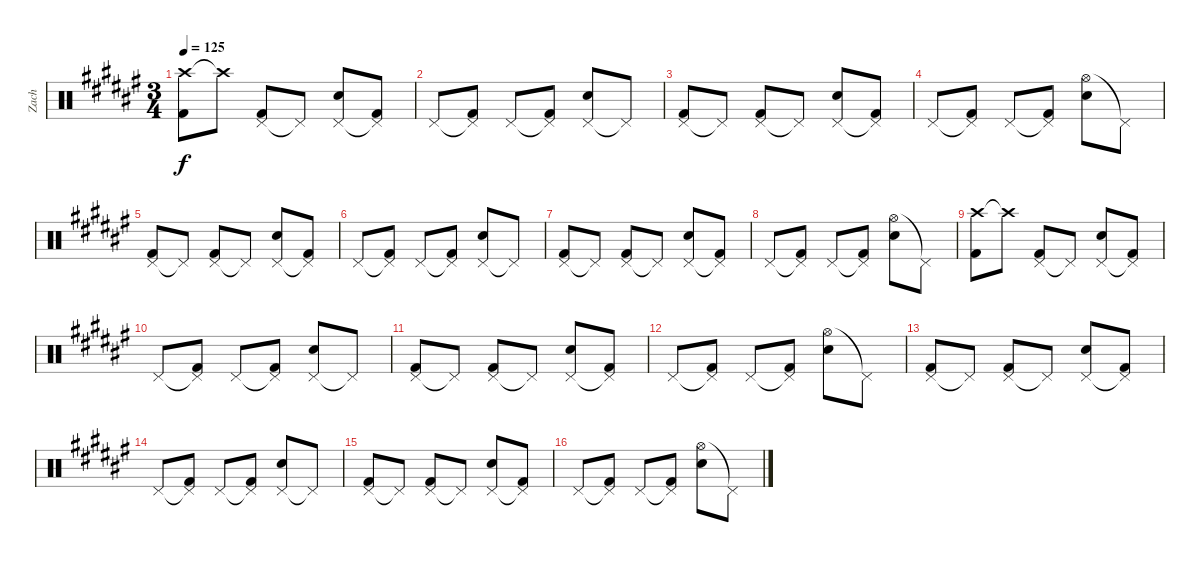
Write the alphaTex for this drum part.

\track ("Zach" "Zach") {instrument percussion}
\staff {score}
\articulation defaults
\ts (3 4)
\tempo 125
\clef neutral
\ks f#
("Crash high (hit)" "Kick (hit) 2").8{dy f} "Crash high (hit)"{t}.8 ("Pedal Hi-Hat (hit)" "Kick (hit) 2").8 "Pedal Hi-Hat (hit)"{t}.8 ("Pedal Hi-Hat (hit)" "Snare (hit) 2").8 ("Pedal Hi-Hat (hit)"{t} "Kick (hit) 2").8 |
"Pedal Hi-Hat (hit)".8 ("Pedal Hi-Hat (hit)"{t} "Kick (hit) 2").8 "Pedal Hi-Hat (hit)".8 ("Pedal Hi-Hat (hit)"{t} "Kick (hit) 2").8 ("Pedal Hi-Hat (hit)" "Snare (hit) 2").8 "Pedal Hi-Hat (hit)"{t}.8 |
("Pedal Hi-Hat (hit)" "Kick (hit) 2").8 "Pedal Hi-Hat (hit)"{t}.8 ("Pedal Hi-Hat (hit)" "Kick (hit) 2").8 "Pedal Hi-Hat (hit)"{t}.8 ("Pedal Hi-Hat (hit)" "Snare (hit) 2").8 ("Pedal Hi-Hat (hit)"{t} "Kick (hit) 2").8 |
"Pedal Hi-Hat (hit)".8 ("Pedal Hi-Hat (hit)"{t} "Kick (hit) 2").8 "Pedal Hi-Hat (hit)".8 ("Pedal Hi-Hat (hit)"{t} "Kick (hit) 2").8 ("Hi-Hat (open)" "Snare (hit) 2").8 "Pedal Hi-Hat (hit)"{t}.8 |
("Pedal Hi-Hat (hit)" "Kick (hit) 2").8 "Pedal Hi-Hat (hit)"{t}.8 ("Pedal Hi-Hat (hit)" "Kick (hit) 2").8 "Pedal Hi-Hat (hit)"{t}.8 ("Pedal Hi-Hat (hit)" "Snare (hit) 2").8 ("Pedal Hi-Hat (hit)"{t} "Kick (hit) 2").8 |
"Pedal Hi-Hat (hit)".8 ("Pedal Hi-Hat (hit)"{t} "Kick (hit) 2").8 "Pedal Hi-Hat (hit)".8 ("Pedal Hi-Hat (hit)"{t} "Kick (hit) 2").8 ("Pedal Hi-Hat (hit)" "Snare (hit) 2").8 "Pedal Hi-Hat (hit)"{t}.8 |
("Pedal Hi-Hat (hit)" "Kick (hit) 2").8 "Pedal Hi-Hat (hit)"{t}.8 ("Pedal Hi-Hat (hit)" "Kick (hit) 2").8 "Pedal Hi-Hat (hit)"{t}.8 ("Pedal Hi-Hat (hit)" "Snare (hit) 2").8 ("Pedal Hi-Hat (hit)"{t} "Kick (hit) 2").8 |
"Pedal Hi-Hat (hit)".8 ("Pedal Hi-Hat (hit)"{t} "Kick (hit) 2").8 "Pedal Hi-Hat (hit)".8 ("Pedal Hi-Hat (hit)"{t} "Kick (hit) 2").8 ("Hi-Hat (open)" "Snare (hit) 2").8 "Pedal Hi-Hat (hit)"{t}.8 |
("Crash high (hit)" "Kick (hit) 2").8 "Crash high (hit)"{t}.8 ("Pedal Hi-Hat (hit)" "Kick (hit) 2").8 "Pedal Hi-Hat (hit)"{t}.8 ("Pedal Hi-Hat (hit)" "Snare (hit) 2").8 ("Pedal Hi-Hat (hit)"{t} "Kick (hit) 2").8 |
"Pedal Hi-Hat (hit)".8 ("Pedal Hi-Hat (hit)"{t} "Kick (hit) 2").8 "Pedal Hi-Hat (hit)".8 ("Pedal Hi-Hat (hit)"{t} "Kick (hit) 2").8 ("Pedal Hi-Hat (hit)" "Snare (hit) 2").8 "Pedal Hi-Hat (hit)"{t}.8 |
("Pedal Hi-Hat (hit)" "Kick (hit) 2").8 "Pedal Hi-Hat (hit)"{t}.8 ("Pedal Hi-Hat (hit)" "Kick (hit) 2").8 "Pedal Hi-Hat (hit)"{t}.8 ("Pedal Hi-Hat (hit)" "Snare (hit) 2").8 ("Pedal Hi-Hat (hit)"{t} "Kick (hit) 2").8 |
"Pedal Hi-Hat (hit)".8 ("Pedal Hi-Hat (hit)"{t} "Kick (hit) 2").8 "Pedal Hi-Hat (hit)".8 ("Pedal Hi-Hat (hit)"{t} "Kick (hit) 2").8 ("Hi-Hat (open)" "Snare (hit) 2").8 "Pedal Hi-Hat (hit)"{t}.8 |
("Pedal Hi-Hat (hit)" "Kick (hit) 2").8 "Pedal Hi-Hat (hit)"{t}.8 ("Pedal Hi-Hat (hit)" "Kick (hit) 2").8 "Pedal Hi-Hat (hit)"{t}.8 ("Pedal Hi-Hat (hit)" "Snare (hit) 2").8 ("Pedal Hi-Hat (hit)"{t} "Kick (hit) 2").8 |
"Pedal Hi-Hat (hit)".8 ("Pedal Hi-Hat (hit)"{t} "Kick (hit) 2").8 "Pedal Hi-Hat (hit)".8 ("Pedal Hi-Hat (hit)"{t} "Kick (hit) 2").8 ("Pedal Hi-Hat (hit)" "Snare (hit) 2").8 "Pedal Hi-Hat (hit)"{t}.8 |
("Pedal Hi-Hat (hit)" "Kick (hit) 2").8 "Pedal Hi-Hat (hit)"{t}.8 ("Pedal Hi-Hat (hit)" "Kick (hit) 2").8 "Pedal Hi-Hat (hit)"{t}.8 ("Pedal Hi-Hat (hit)" "Snare (hit) 2").8 ("Pedal Hi-Hat (hit)"{t} "Kick (hit) 2").8 |
"Pedal Hi-Hat (hit)".8 ("Pedal Hi-Hat (hit)"{t} "Kick (hit) 2").8 "Pedal Hi-Hat (hit)".8 ("Pedal Hi-Hat (hit)"{t} "Kick (hit) 2").8 ("Hi-Hat (open)" "Snare (hit) 2").8 "Pedal Hi-Hat (hit)"{t}.8
